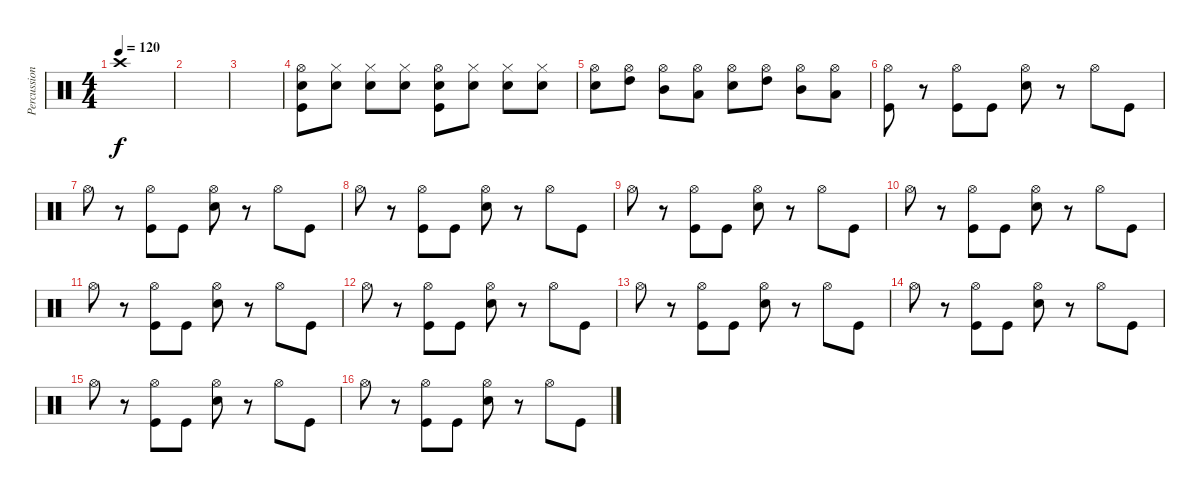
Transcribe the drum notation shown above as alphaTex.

\track ("Percussion" "Percussion") {instrument percussion}
\staff {score}
\articulation defaults
\ts (4 4)
\tempo 120
\clef neutral
\ks c "Crash high (hit)".1{dy f}
|
|
|
("Hi-Hat (open)" "Electric Snare (hit)" "Kick (hit)").8 ("Hi-Hat (closed)" "Electric Snare (hit)").8 ("Hi-Hat (closed)" "Electric Snare (hit)").8 ("Hi-Hat (closed)" "Electric Snare (hit)").8 ("Hi-Hat (open)" "Electric Snare (hit)" "Kick (hit)").8 ("Hi-Hat (closed)" "Electric Snare (hit)").8 ("Hi-Hat (closed)" "Electric Snare (hit)").8 ("Hi-Hat (closed)" "Electric Snare (hit)").8 |
("Hi-Hat (open)" "Electric Snare (hit)").8 ("Hi-Hat (open)" "High Tom (hit)").8 ("Hi-Hat (open)" "Mid Tom (hit)").8 ("Hi-Hat (open)" "Low Tom (hit)").8 ("Hi-Hat (open)" "Electric Snare (hit)").8 ("Hi-Hat (open)" "High Tom (hit)").8 ("Hi-Hat (open)" "Mid Tom (hit)").8 ("Hi-Hat (open)" "Low Tom (hit)").8 |
("Hi-Hat (open)" "Kick (hit)").8 r.8 ("Hi-Hat (open)" "Kick (hit)").8 "Kick (hit)".8 ("Hi-Hat (open)" "Electric Snare (hit)").8 r.8 "Hi-Hat (open)".8 "Kick (hit)".8 |
"Hi-Hat (open)".8 r.8 ("Hi-Hat (open)" "Kick (hit)").8 "Kick (hit)".8 ("Hi-Hat (open)" "Electric Snare (hit)").8 r.8 "Hi-Hat (open)".8 "Kick (hit)".8 |
"Hi-Hat (open)".8 r.8 ("Hi-Hat (open)" "Kick (hit)").8 "Kick (hit)".8 ("Hi-Hat (open)" "Electric Snare (hit)").8 r.8 "Hi-Hat (open)".8 "Kick (hit)".8 |
"Hi-Hat (open)".8 r.8 ("Hi-Hat (open)" "Kick (hit)").8 "Kick (hit)".8 ("Hi-Hat (open)" "Electric Snare (hit)").8 r.8 "Hi-Hat (open)".8 "Kick (hit)".8 |
"Hi-Hat (open)".8 r.8 ("Hi-Hat (open)" "Kick (hit)").8 "Kick (hit)".8 ("Hi-Hat (open)" "Electric Snare (hit)").8 r.8 "Hi-Hat (open)".8 "Kick (hit)".8 |
"Hi-Hat (open)".8 r.8 ("Hi-Hat (open)" "Kick (hit)").8 "Kick (hit)".8 ("Hi-Hat (open)" "Electric Snare (hit)").8 r.8 "Hi-Hat (open)".8 "Kick (hit)".8 |
"Hi-Hat (open)".8 r.8 ("Hi-Hat (open)" "Kick (hit)").8 "Kick (hit)".8 ("Hi-Hat (open)" "Electric Snare (hit)").8 r.8 "Hi-Hat (open)".8 "Kick (hit)".8 |
"Hi-Hat (open)".8 r.8 ("Hi-Hat (open)" "Kick (hit)").8 "Kick (hit)".8 ("Hi-Hat (open)" "Electric Snare (hit)").8 r.8 "Hi-Hat (open)".8 "Kick (hit)".8 |
"Hi-Hat (open)".8 r.8 ("Hi-Hat (open)" "Kick (hit)").8 "Kick (hit)".8 ("Hi-Hat (open)" "Electric Snare (hit)").8 r.8 "Hi-Hat (open)".8 "Kick (hit)".8 |
"Hi-Hat (open)".8 r.8 ("Hi-Hat (open)" "Kick (hit)").8 "Kick (hit)".8 ("Hi-Hat (open)" "Electric Snare (hit)").8 r.8 "Hi-Hat (open)".8 "Kick (hit)".8 |
"Hi-Hat (open)".8 r.8 ("Hi-Hat (open)" "Kick (hit)").8 "Kick (hit)".8 ("Hi-Hat (open)" "Electric Snare (hit)").8 r.8 "Hi-Hat (open)".8 "Kick (hit)".8
